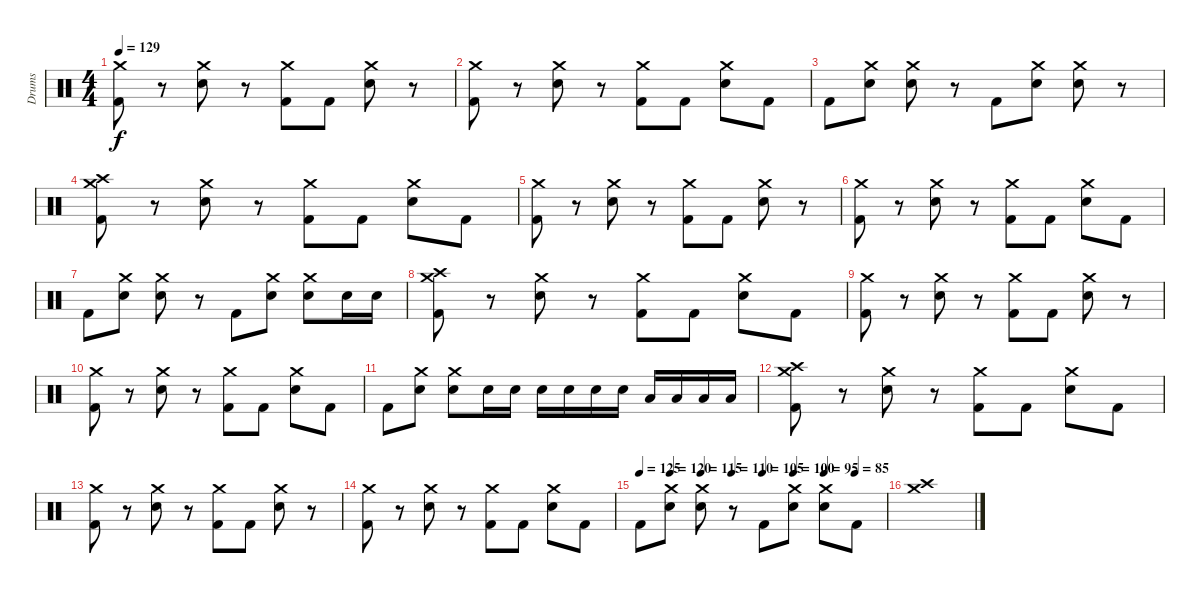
\track ("Drums" "Drums") {instrument percussion}
\staff {score}
\articulation defaults
\ts (4 4)
\tempo 129
\clef neutral
\ks c
("Crash medium (hit)" "Kick (hit) 2").8{dy f} r.8 ("Crash medium (hit)" "Snare (hit) 2").8 r.8 ("Crash medium (hit)" "Kick (hit) 2").8 "Kick (hit) 2".8 ("Crash medium (hit)" "Snare (hit) 2").8 r.8 |
("Crash medium (hit)" "Kick (hit) 2").8 r.8 ("Crash medium (hit)" "Snare (hit) 2").8 r.8 ("Crash medium (hit)" "Kick (hit) 2").8 "Kick (hit) 2".8 ("Crash medium (hit)" "Snare (hit) 2").8 "Kick (hit) 2".8 |
"Kick (hit) 2".8 ("Crash medium (hit)" "Snare (hit) 2").8 ("Crash medium (hit)" "Snare (hit) 2").8 r.8 "Kick (hit) 2".8 ("Crash medium (hit)" "Snare (hit) 2").8 ("Crash medium (hit)" "Snare (hit) 2").8 r.8 |
("Crash high (hit)" "Crash medium (hit)" "Kick (hit) 2").8 r.8 ("Crash medium (hit)" "Snare (hit) 2").8 r.8 ("Crash medium (hit)" "Kick (hit) 2").8 "Kick (hit) 2".8 ("Crash medium (hit)" "Snare (hit) 2").8 "Kick (hit) 2".8 |
("Crash medium (hit)" "Kick (hit) 2").8 r.8 ("Crash medium (hit)" "Snare (hit) 2").8 r.8 ("Crash medium (hit)" "Kick (hit) 2").8 "Kick (hit) 2".8 ("Crash medium (hit)" "Snare (hit) 2").8 r.8 |
("Crash medium (hit)" "Kick (hit) 2").8 r.8 ("Crash medium (hit)" "Snare (hit) 2").8 r.8 ("Crash medium (hit)" "Kick (hit) 2").8 "Kick (hit) 2".8 ("Crash medium (hit)" "Snare (hit) 2").8 "Kick (hit) 2".8 |
"Kick (hit) 2".8 ("Crash medium (hit)" "Snare (hit) 2").8 ("Crash medium (hit)" "Snare (hit) 2").8 r.8 "Kick (hit) 2".8 ("Crash medium (hit)" "Snare (hit) 2").8 ("Crash medium (hit)" "Snare (hit) 2").8 "Snare (hit) 2".16 "Snare (hit) 2".16 |
("Crash high (hit)" "Crash medium (hit)" "Kick (hit) 2").8 r.8 ("Crash medium (hit)" "Snare (hit) 2").8 r.8 ("Crash medium (hit)" "Kick (hit) 2").8 "Kick (hit) 2".8 ("Crash medium (hit)" "Snare (hit) 2").8 "Kick (hit) 2".8 |
("Crash medium (hit)" "Kick (hit) 2").8 r.8 ("Crash medium (hit)" "Snare (hit) 2").8 r.8 ("Crash medium (hit)" "Kick (hit) 2").8 "Kick (hit) 2".8 ("Crash medium (hit)" "Snare (hit) 2").8 r.8 |
("Crash medium (hit)" "Kick (hit) 2").8 r.8 ("Crash medium (hit)" "Snare (hit) 2").8 r.8 ("Crash medium (hit)" "Kick (hit) 2").8 "Kick (hit) 2".8 ("Crash medium (hit)" "Snare (hit) 2").8 "Kick (hit) 2".8 |
"Kick (hit) 2".8 ("Crash medium (hit)" "Snare (hit) 2").8 ("Crash medium (hit)" "Snare (hit) 2").8 "Snare (hit) 2".16 "Snare (hit) 2".16 "Snare (hit) 2".16 "Snare (hit) 2".16 "Snare (hit) 2".16 "Snare (hit) 2".16 "Low Tom (hit)".16 "Low Tom (hit)".16 "Low Tom (hit)".16 "Low Tom (hit)".16 |
("Crash high (hit)" "Crash medium (hit)" "Kick (hit) 2").8 r.8 ("Crash medium (hit)" "Snare (hit) 2").8 r.8 ("Crash medium (hit)" "Kick (hit) 2").8 "Kick (hit) 2".8 ("Crash medium (hit)" "Snare (hit) 2").8 "Kick (hit) 2".8 |
("Crash medium (hit)" "Kick (hit) 2").8 r.8 ("Crash medium (hit)" "Snare (hit) 2").8 r.8 ("Crash medium (hit)" "Kick (hit) 2").8 "Kick (hit) 2".8 ("Crash medium (hit)" "Snare (hit) 2").8 r.8 |
("Crash medium (hit)" "Kick (hit) 2").8 r.8 ("Crash medium (hit)" "Snare (hit) 2").8 r.8 ("Crash medium (hit)" "Kick (hit) 2").8 "Kick (hit) 2".8 ("Crash medium (hit)" "Snare (hit) 2").8 "Kick (hit) 2".8 |
\tempo 125
\tempo (120 0.125)
\tempo (115 0.25)
\tempo (110 0.375)
\tempo (105 0.5)
\tempo (100 0.625)
\tempo (95 0.75)
\tempo (90 0.875)
\tempo (85 0.875)
"Kick (hit) 2".8 ("Crash medium (hit)" "Snare (hit) 2").8 ("Crash medium (hit)" "Snare (hit) 2").8 r.8 "Kick (hit) 2".8 ("Crash medium (hit)" "Snare (hit) 2").8 ("Crash medium (hit)" "Snare (hit) 2").8 "Kick (hit) 2".8 |
("Crash high (hit)" "Crash medium (hit)").1
